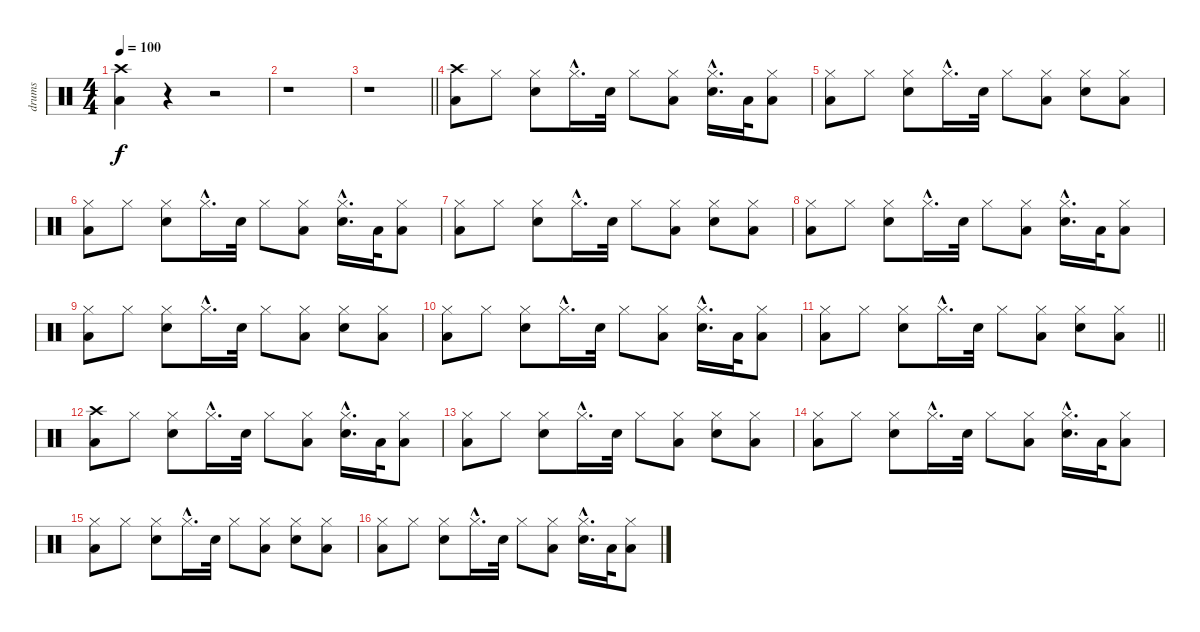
\track ("drums" "drums") {instrument percussion}
\staff {score}
\articulation defaults
\ts (4 4)
\tempo 100
\clef neutral
\ks c
("Crash high (hit)" "Low Floor Tom (hit)").4{dy f} r.4 r.2 |
r.1 |
\barLineRight lightlight
r.1 |
("Crash high (hit)" "Low Floor Tom (hit)").8 "Hi-Hat (closed)".8 ("Hi-Hat (closed)" "Electric Snare (hit)").8 "Hi-Hat (closed)"{hac}.16{d} "Electric Snare (hit)".32 "Hi-Hat (closed)".8 ("Hi-Hat (closed)" "Low Floor Tom (hit)").8 ("Hi-Hat (closed)"{hac} "Electric Snare (hit)"{hac}).16{d} "Low Floor Tom (hit)".32 ("Hi-Hat (closed)" "Low Floor Tom (hit)").8 |
("Hi-Hat (closed)" "Low Floor Tom (hit)").8 "Hi-Hat (closed)".8 ("Hi-Hat (closed)" "Electric Snare (hit)").8 "Hi-Hat (closed)"{hac}.16{d} "Electric Snare (hit)".32 "Hi-Hat (closed)".8 ("Hi-Hat (closed)" "Low Floor Tom (hit)").8 ("Hi-Hat (closed)" "Electric Snare (hit)").8 ("Hi-Hat (closed)" "Low Floor Tom (hit)").8 |
("Hi-Hat (closed)" "Low Floor Tom (hit)").8 "Hi-Hat (closed)".8 ("Hi-Hat (closed)" "Electric Snare (hit)").8 "Hi-Hat (closed)"{hac}.16{d} "Electric Snare (hit)".32 "Hi-Hat (closed)".8 ("Hi-Hat (closed)" "Low Floor Tom (hit)").8 ("Hi-Hat (closed)"{hac} "Electric Snare (hit)"{hac}).16{d} "Low Floor Tom (hit)".32 ("Hi-Hat (closed)" "Low Floor Tom (hit)").8 |
("Hi-Hat (closed)" "Low Floor Tom (hit)").8 "Hi-Hat (closed)".8 ("Hi-Hat (closed)" "Electric Snare (hit)").8 "Hi-Hat (closed)"{hac}.16{d} "Electric Snare (hit)".32 "Hi-Hat (closed)".8 ("Hi-Hat (closed)" "Low Floor Tom (hit)").8 ("Hi-Hat (closed)" "Electric Snare (hit)").8 ("Hi-Hat (closed)" "Low Floor Tom (hit)").8 |
("Hi-Hat (closed)" "Low Floor Tom (hit)").8 "Hi-Hat (closed)".8 ("Hi-Hat (closed)" "Electric Snare (hit)").8 "Hi-Hat (closed)"{hac}.16{d} "Electric Snare (hit)".32 "Hi-Hat (closed)".8 ("Hi-Hat (closed)" "Low Floor Tom (hit)").8 ("Hi-Hat (closed)"{hac} "Electric Snare (hit)"{hac}).16{d} "Low Floor Tom (hit)".32 ("Hi-Hat (closed)" "Low Floor Tom (hit)").8 |
("Hi-Hat (closed)" "Low Floor Tom (hit)").8 "Hi-Hat (closed)".8 ("Hi-Hat (closed)" "Electric Snare (hit)").8 "Hi-Hat (closed)"{hac}.16{d} "Electric Snare (hit)".32 "Hi-Hat (closed)".8 ("Hi-Hat (closed)" "Low Floor Tom (hit)").8 ("Hi-Hat (closed)" "Electric Snare (hit)").8 ("Hi-Hat (closed)" "Low Floor Tom (hit)").8 |
("Hi-Hat (closed)" "Low Floor Tom (hit)").8 "Hi-Hat (closed)".8 ("Hi-Hat (closed)" "Electric Snare (hit)").8 "Hi-Hat (closed)"{hac}.16{d} "Electric Snare (hit)".32 "Hi-Hat (closed)".8 ("Hi-Hat (closed)" "Low Floor Tom (hit)").8 ("Hi-Hat (closed)"{hac} "Electric Snare (hit)"{hac}).16{d} "Low Floor Tom (hit)".32 ("Hi-Hat (closed)" "Low Floor Tom (hit)").8 |
\barLineRight lightlight
("Hi-Hat (closed)" "Low Floor Tom (hit)").8 "Hi-Hat (closed)".8 ("Hi-Hat (closed)" "Electric Snare (hit)").8 "Hi-Hat (closed)"{hac}.16{d} "Electric Snare (hit)".32 "Hi-Hat (closed)".8 ("Hi-Hat (closed)" "Low Floor Tom (hit)").8 ("Hi-Hat (closed)" "Electric Snare (hit)").8 ("Hi-Hat (closed)" "Low Floor Tom (hit)").8 |
("Crash high (hit)" "Low Floor Tom (hit)").8 "Hi-Hat (closed)".8 ("Hi-Hat (closed)" "Electric Snare (hit)").8 "Hi-Hat (closed)"{hac}.16{d} "Electric Snare (hit)".32 "Hi-Hat (closed)".8 ("Hi-Hat (closed)" "Low Floor Tom (hit)").8 ("Hi-Hat (closed)"{hac} "Electric Snare (hit)"{hac}).16{d} "Low Floor Tom (hit)".32 ("Hi-Hat (closed)" "Low Floor Tom (hit)").8 |
("Hi-Hat (closed)" "Low Floor Tom (hit)").8 "Hi-Hat (closed)".8 ("Hi-Hat (closed)" "Electric Snare (hit)").8 "Hi-Hat (closed)"{hac}.16{d} "Electric Snare (hit)".32 "Hi-Hat (closed)".8 ("Hi-Hat (closed)" "Low Floor Tom (hit)").8 ("Hi-Hat (closed)" "Electric Snare (hit)").8 ("Hi-Hat (closed)" "Low Floor Tom (hit)").8 |
("Hi-Hat (closed)" "Low Floor Tom (hit)").8 "Hi-Hat (closed)".8 ("Hi-Hat (closed)" "Electric Snare (hit)").8 "Hi-Hat (closed)"{hac}.16{d} "Electric Snare (hit)".32 "Hi-Hat (closed)".8 ("Hi-Hat (closed)" "Low Floor Tom (hit)").8 ("Hi-Hat (closed)"{hac} "Electric Snare (hit)"{hac}).16{d} "Low Floor Tom (hit)".32 ("Hi-Hat (closed)" "Low Floor Tom (hit)").8 |
("Hi-Hat (closed)" "Low Floor Tom (hit)").8 "Hi-Hat (closed)".8 ("Hi-Hat (closed)" "Electric Snare (hit)").8 "Hi-Hat (closed)"{hac}.16{d} "Electric Snare (hit)".32 "Hi-Hat (closed)".8 ("Hi-Hat (closed)" "Low Floor Tom (hit)").8 ("Hi-Hat (closed)" "Electric Snare (hit)").8 ("Hi-Hat (closed)" "Low Floor Tom (hit)").8 |
("Hi-Hat (closed)" "Low Floor Tom (hit)").8 "Hi-Hat (closed)".8 ("Hi-Hat (closed)" "Electric Snare (hit)").8 "Hi-Hat (closed)"{hac}.16{d} "Electric Snare (hit)".32 "Hi-Hat (closed)".8 ("Hi-Hat (closed)" "Low Floor Tom (hit)").8 ("Hi-Hat (closed)"{hac} "Electric Snare (hit)"{hac}).16{d} "Low Floor Tom (hit)".32 ("Hi-Hat (closed)" "Low Floor Tom (hit)").8
